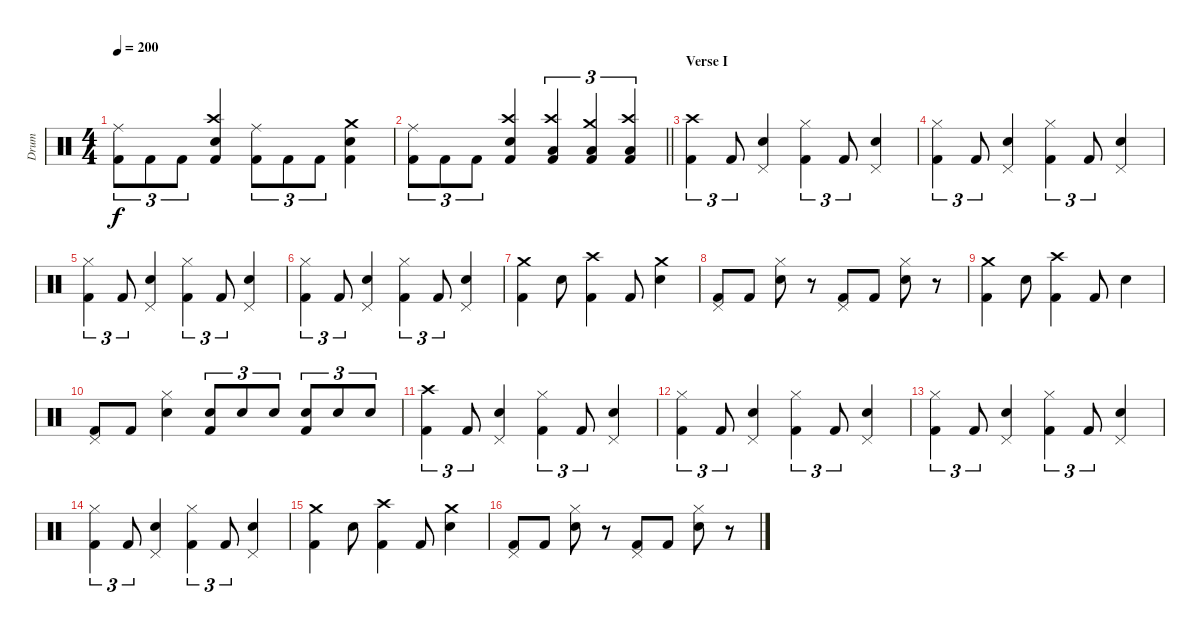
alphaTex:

\track ("Drum" "Drum") {instrument percussion}
\staff {score}
\articulation defaults
\ts (4 4)
\tempo 200
\clef neutral
\ks c
("Ride (middle)" "Kick (hit) 2").8{tu (3 2) dy f} "Kick (hit) 2".8{tu (3 2)} "Kick (hit) 2".8{tu (3 2)} ("Crash high (hit)" "Electric Snare (hit)" "Kick (hit) 2").4 ("Ride (middle)" "Kick (hit) 2").8{tu (3 2)} "Kick (hit) 2".8{tu (3 2)} "Kick (hit) 2".8{tu (3 2)} ("Crash medium (hit)" "Electric Snare (hit)" "Kick (hit) 2").4 |
\barLineRight lightlight
("Ride (middle)" "Kick (hit) 2").8{tu (3 2)} "Kick (hit) 2".8{tu (3 2)} "Kick (hit) 2".8{tu (3 2)} ("Crash high (hit)" "Electric Snare (hit)" "Kick (hit) 2").4 ("Crash high (hit)" "Low Floor Tom (hit)" "Kick (hit) 2").4{tu (3 2)} ("Crash medium (hit)" "Low Floor Tom (hit)" "Kick (hit) 2").4{tu (3 2)} ("Crash high (hit)" "Low Floor Tom (hit)" "Kick (hit) 2").4{tu (3 2)} |
\section ("" "Verse I")
("Crash high (hit)" "Kick (hit) 2").4{tu (3 2)} "Kick (hit) 2".8{tu (3 2)} ("Pedal Hi-Hat (hit)" "Electric Snare (hit)").4 ("Hi-Hat (closed)" "Kick (hit) 2").4{tu (3 2)} "Kick (hit) 2".8{tu (3 2)} ("Pedal Hi-Hat (hit)" "Electric Snare (hit)").4 |
("Hi-Hat (closed)" "Kick (hit) 2").4{tu (3 2)} "Kick (hit) 2".8{tu (3 2)} ("Pedal Hi-Hat (hit)" "Electric Snare (hit)").4 ("Hi-Hat (closed)" "Kick (hit) 2").4{tu (3 2)} "Kick (hit) 2".8{tu (3 2)} ("Pedal Hi-Hat (hit)" "Electric Snare (hit)").4 |
("Hi-Hat (closed)" "Kick (hit) 2").4{tu (3 2)} "Kick (hit) 2".8{tu (3 2)} ("Pedal Hi-Hat (hit)" "Electric Snare (hit)").4 ("Hi-Hat (closed)" "Kick (hit) 2").4{tu (3 2)} "Kick (hit) 2".8{tu (3 2)} ("Pedal Hi-Hat (hit)" "Electric Snare (hit)").4 |
("Hi-Hat (closed)" "Kick (hit) 2").4{tu (3 2)} "Kick (hit) 2".8{tu (3 2)} ("Pedal Hi-Hat (hit)" "Electric Snare (hit)").4 ("Hi-Hat (closed)" "Kick (hit) 2").4{tu (3 2)} "Kick (hit) 2".8{tu (3 2)} ("Pedal Hi-Hat (hit)" "Electric Snare (hit)").4 |
("Crash medium (hit)" "Kick (hit) 2").4 "Electric Snare (hit)".8 ("Crash high (hit)" "Kick (hit) 2").4 "Kick (hit) 2".8 ("Crash medium (hit)" "Electric Snare (hit)").4 |
("Pedal Hi-Hat (hit)" "Kick (hit) 2").8 "Kick (hit) 2".8 ("Hi-Hat (closed)" "Electric Snare (hit)").8 r.8 ("Pedal Hi-Hat (hit)" "Kick (hit) 2").8 "Kick (hit) 2".8 ("Hi-Hat (closed)" "Electric Snare (hit)").8 r.8 |
("Crash medium (hit)" "Kick (hit) 2").4 "Electric Snare (hit)".8 ("Crash high (hit)" "Kick (hit) 2").4 "Kick (hit) 2".8 "Electric Snare (hit)".4 |
("Pedal Hi-Hat (hit)" "Kick (hit) 2").8 "Kick (hit) 2".8 ("Hi-Hat (closed)" "Electric Snare (hit)").4 ("Electric Snare (hit)" "Kick (hit) 2").8{tu (3 2)} "Electric Snare (hit)".8{tu (3 2)} "Electric Snare (hit)".8{tu (3 2)} ("Electric Snare (hit)" "Kick (hit) 2").8{tu (3 2)} "Electric Snare (hit)".8{tu (3 2)} "Electric Snare (hit)".8{tu (3 2)} |
("Crash high (hit)" "Kick (hit) 2").4{tu (3 2)} "Kick (hit) 2".8{tu (3 2)} ("Pedal Hi-Hat (hit)" "Electric Snare (hit)").4 ("Hi-Hat (closed)" "Kick (hit) 2").4{tu (3 2)} "Kick (hit) 2".8{tu (3 2)} ("Pedal Hi-Hat (hit)" "Electric Snare (hit)").4 |
("Hi-Hat (closed)" "Kick (hit) 2").4{tu (3 2)} "Kick (hit) 2".8{tu (3 2)} ("Pedal Hi-Hat (hit)" "Electric Snare (hit)").4 ("Hi-Hat (closed)" "Kick (hit) 2").4{tu (3 2)} "Kick (hit) 2".8{tu (3 2)} ("Pedal Hi-Hat (hit)" "Electric Snare (hit)").4 |
("Hi-Hat (closed)" "Kick (hit) 2").4{tu (3 2)} "Kick (hit) 2".8{tu (3 2)} ("Pedal Hi-Hat (hit)" "Electric Snare (hit)").4 ("Hi-Hat (closed)" "Kick (hit) 2").4{tu (3 2)} "Kick (hit) 2".8{tu (3 2)} ("Pedal Hi-Hat (hit)" "Electric Snare (hit)").4 |
("Hi-Hat (closed)" "Kick (hit) 2").4{tu (3 2)} "Kick (hit) 2".8{tu (3 2)} ("Pedal Hi-Hat (hit)" "Electric Snare (hit)").4 ("Hi-Hat (closed)" "Kick (hit) 2").4{tu (3 2)} "Kick (hit) 2".8{tu (3 2)} ("Pedal Hi-Hat (hit)" "Electric Snare (hit)").4 |
("Crash medium (hit)" "Kick (hit) 2").4 "Electric Snare (hit)".8 ("Crash high (hit)" "Kick (hit) 2").4 "Kick (hit) 2".8 ("Crash medium (hit)" "Electric Snare (hit)").4 |
("Pedal Hi-Hat (hit)" "Kick (hit) 2").8 "Kick (hit) 2".8 ("Hi-Hat (closed)" "Electric Snare (hit)").8 r.8 ("Pedal Hi-Hat (hit)" "Kick (hit) 2").8 "Kick (hit) 2".8 ("Hi-Hat (closed)" "Electric Snare (hit)").8 r.8
